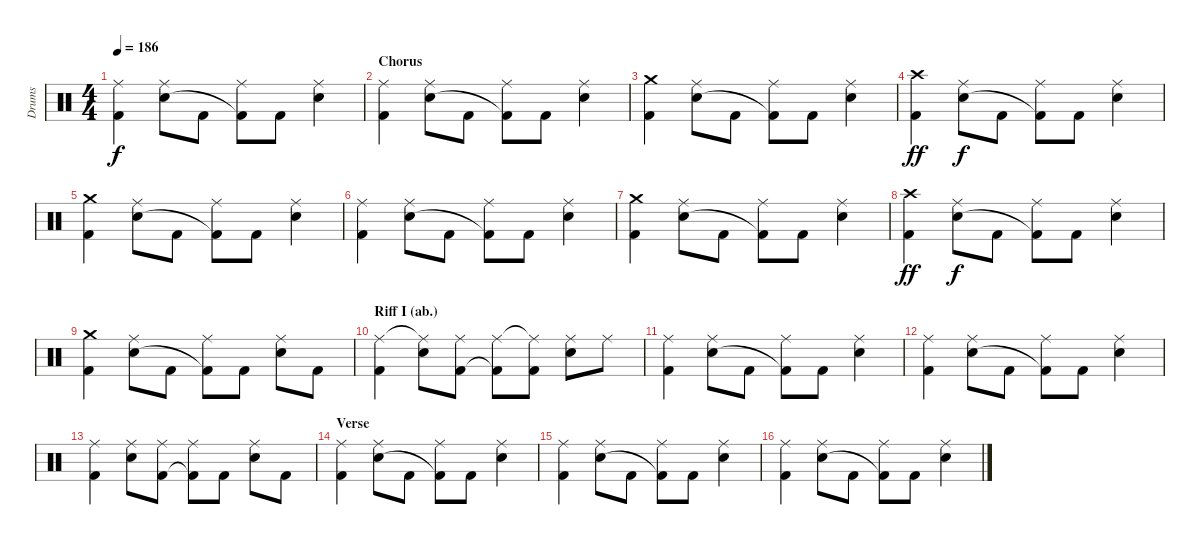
\track ("Drums" "Drums") {instrument percussion}
\staff {score}
\articulation defaults
\ts (4 4)
\tempo 186
\clef neutral
\ks c
("Ride (middle)" "Kick (hit) 2").4{dy f} ("Ride (middle)" "Electric Snare (hit)").8 "Kick (hit) 2".8 ("Ride (middle)" "Kick (hit) 2"{t}).8 "Kick (hit) 2".8 ("Ride (middle)" "Electric Snare (hit)").4 |
\section ("" "Chorus")
("Ride (middle)" "Kick (hit) 2").4 ("Ride (middle)" "Electric Snare (hit)").8 "Kick (hit) 2".8 ("Ride (middle)" "Kick (hit) 2"{t}).8 "Kick (hit) 2".8 ("Ride (middle)" "Electric Snare (hit)").4 |
("Crash medium (hit)" "Kick (hit) 2").4 ("Ride (middle)" "Electric Snare (hit)").8 "Kick (hit) 2".8 ("Ride (middle)" "Kick (hit) 2"{t}).8 "Kick (hit) 2".8 ("Ride (middle)" "Electric Snare (hit)").4 |
("Crash high (hit)" "Kick (hit) 2").4{dy ff} ("Ride (middle)" "Electric Snare (hit)").8{dy f} "Kick (hit) 2".8 ("Ride (middle)" "Kick (hit) 2"{t}).8 "Kick (hit) 2".8 ("Ride (middle)" "Electric Snare (hit)").4 |
("Crash medium (hit)" "Kick (hit) 2").4 ("Ride (middle)" "Electric Snare (hit)").8 "Kick (hit) 2".8 ("Ride (middle)" "Kick (hit) 2"{t}).8 "Kick (hit) 2".8 ("Ride (middle)" "Electric Snare (hit)").4 |
("Ride (middle)" "Kick (hit) 2").4 ("Ride (middle)" "Electric Snare (hit)").8 "Kick (hit) 2".8 ("Ride (middle)" "Kick (hit) 2"{t}).8 "Kick (hit) 2".8 ("Ride (middle)" "Electric Snare (hit)").4 |
("Crash medium (hit)" "Kick (hit) 2").4 ("Ride (middle)" "Electric Snare (hit)").8 "Kick (hit) 2".8 ("Ride (middle)" "Kick (hit) 2"{t}).8 "Kick (hit) 2".8 ("Ride (middle)" "Electric Snare (hit)").4 |
("Crash high (hit)" "Kick (hit) 2").4{dy ff} ("Ride (middle)" "Electric Snare (hit)").8{dy f} "Kick (hit) 2".8 ("Ride (middle)" "Kick (hit) 2"{t}).8 "Kick (hit) 2".8 ("Ride (middle)" "Electric Snare (hit)").4 |
("Crash medium (hit)" "Kick (hit) 2").4 ("Ride (middle)" "Electric Snare (hit)").8 "Kick (hit) 2".8 ("Ride (middle)" "Kick (hit) 2"{t}).8 "Kick (hit) 2".8 ("Ride (middle)" "Electric Snare (hit)").8 "Kick (hit) 2".8 |
\section ("" "Riff I (ab.)")
("Ride (middle)" "Kick (hit) 2").4 ("Ride (middle)"{t} "Electric Snare (hit)").8 ("Ride (middle)" "Kick (hit) 2").8 ("Ride (middle)" "Kick (hit) 2"{t}).8 ("Ride (middle)"{t} "Kick (hit) 2").8 ("Ride (middle)" "Electric Snare (hit)").8 "Ride (middle)".8 |
("Ride (middle)" "Kick (hit) 2").4 ("Ride (middle)" "Electric Snare (hit)").8 "Kick (hit) 2".8 ("Ride (middle)" "Kick (hit) 2"{t}).8 "Kick (hit) 2".8 ("Ride (middle)" "Electric Snare (hit)").4 |
("Ride (middle)" "Kick (hit) 2").4 ("Ride (middle)" "Electric Snare (hit)").8 "Kick (hit) 2".8 ("Ride (middle)" "Kick (hit) 2"{t}).8 "Kick (hit) 2".8 ("Ride (middle)" "Electric Snare (hit)").4 |
("Ride (middle)" "Kick (hit) 2").4 ("Ride (middle)" "Electric Snare (hit)").8 ("Ride (middle)" "Kick (hit) 2").8 ("Ride (middle)" "Kick (hit) 2"{t}).8 "Kick (hit) 2".8 ("Ride (middle)" "Electric Snare (hit)").8 "Kick (hit) 2".8 |
\section ("" "Verse")
("Ride (middle)" "Kick (hit) 2").4 ("Ride (middle)" "Electric Snare (hit)").8 "Kick (hit) 2".8 ("Ride (middle)" "Kick (hit) 2"{t}).8 "Kick (hit) 2".8 ("Ride (middle)" "Electric Snare (hit)").4 |
("Ride (middle)" "Kick (hit) 2").4 ("Ride (middle)" "Electric Snare (hit)").8 "Kick (hit) 2".8 ("Ride (middle)" "Kick (hit) 2"{t}).8 "Kick (hit) 2".8 ("Ride (middle)" "Electric Snare (hit)").4 |
("Ride (middle)" "Kick (hit) 2").4 ("Ride (middle)" "Electric Snare (hit)").8 "Kick (hit) 2".8 ("Ride (middle)" "Kick (hit) 2"{t}).8 "Kick (hit) 2".8 ("Ride (middle)" "Electric Snare (hit)").4
